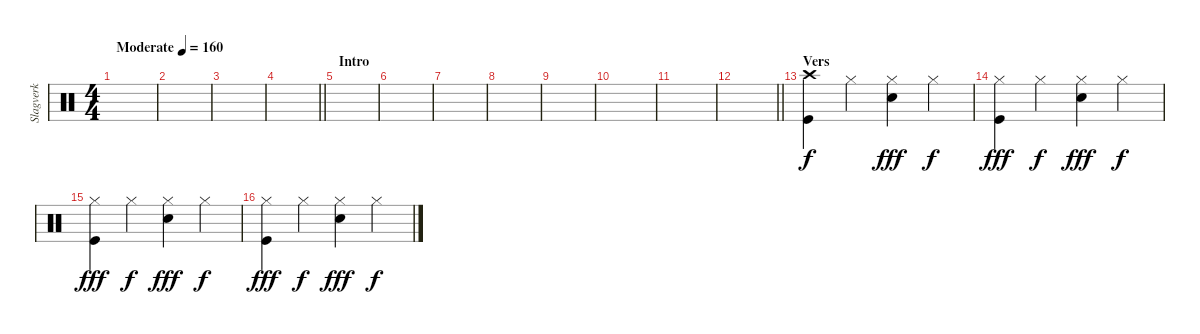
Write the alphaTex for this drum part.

\track ("Slagverk" "Slagverk") {instrument percussion}
\staff {score}
\articulation defaults
\ts (4 4)
\tempo (160 "Moderate")
\clef neutral
\ks c
|
|
|
\barLineRight lightlight
|
\section ("" "Intro")
|
|
|
|
|
|
|
\barLineRight lightlight
|
\section ("" "Vers")
("Crash high (hit)" "Kick (hit)").4 "Hi-Hat (closed)".4{dy f} ("Hi-Hat (closed)" "Electric Snare (hit)").4{dy fff} "Hi-Hat (closed)".4{dy f} |
("Hi-Hat (closed)" "Kick (hit)").4{dy fff} "Hi-Hat (closed)".4{dy f} ("Hi-Hat (closed)" "Electric Snare (hit)").4{dy fff} "Hi-Hat (closed)".4{dy f} |
("Hi-Hat (closed)" "Kick (hit)").4{dy fff} "Hi-Hat (closed)".4{dy f} ("Hi-Hat (closed)" "Electric Snare (hit)").4{dy fff} "Hi-Hat (closed)".4{dy f} |
("Hi-Hat (closed)" "Kick (hit)").4{dy fff} "Hi-Hat (closed)".4{dy f} ("Hi-Hat (closed)" "Electric Snare (hit)").4{dy fff} "Hi-Hat (closed)".4{dy f}
